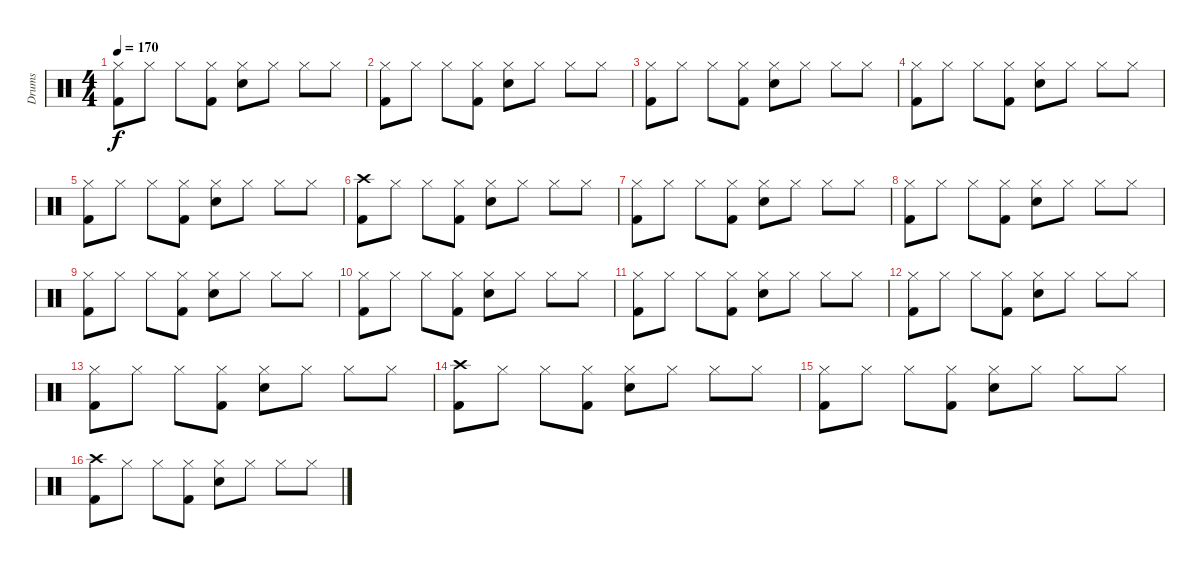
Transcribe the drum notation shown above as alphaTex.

\track ("Drums" "Drums") {instrument percussion}
\staff {score}
\articulation defaults
\ts (4 4)
\tempo 170
\clef neutral
\ks c
("Hi-Hat (closed)" "Kick (hit) 2").8{dy f} "Hi-Hat (closed)".8 "Hi-Hat (closed)".8 ("Hi-Hat (closed)" "Kick (hit) 2").8 ("Hi-Hat (closed)" "Snare (hit) 2").8 "Hi-Hat (closed)".8 "Hi-Hat (closed)".8 "Hi-Hat (closed)".8 |
("Hi-Hat (closed)" "Kick (hit) 2").8 "Hi-Hat (closed)".8 "Hi-Hat (closed)".8 ("Hi-Hat (closed)" "Kick (hit) 2").8 ("Hi-Hat (closed)" "Snare (hit) 2").8 "Hi-Hat (closed)".8 "Hi-Hat (closed)".8 "Hi-Hat (closed)".8 |
("Hi-Hat (closed)" "Kick (hit) 2").8 "Hi-Hat (closed)".8 "Hi-Hat (closed)".8 ("Hi-Hat (closed)" "Kick (hit) 2").8 ("Hi-Hat (closed)" "Snare (hit) 2").8 "Hi-Hat (closed)".8 "Hi-Hat (closed)".8 "Hi-Hat (closed)".8 |
("Hi-Hat (closed)" "Kick (hit) 2").8 "Hi-Hat (closed)".8 "Hi-Hat (closed)".8 ("Hi-Hat (closed)" "Kick (hit) 2").8 ("Hi-Hat (closed)" "Snare (hit) 2").8 "Hi-Hat (closed)".8 "Hi-Hat (closed)".8 "Hi-Hat (closed)".8 |
("Hi-Hat (closed)" "Kick (hit) 2").8 "Hi-Hat (closed)".8 "Hi-Hat (closed)".8 ("Hi-Hat (closed)" "Kick (hit) 2").8 ("Hi-Hat (closed)" "Snare (hit) 2").8 "Hi-Hat (closed)".8 "Hi-Hat (closed)".8 "Hi-Hat (closed)".8 |
("Crash high (hit)" "Kick (hit) 2").8 "Hi-Hat (closed)".8 "Hi-Hat (closed)".8 ("Hi-Hat (closed)" "Kick (hit) 2").8 ("Hi-Hat (closed)" "Snare (hit) 2").8 "Hi-Hat (closed)".8 "Hi-Hat (closed)".8 "Hi-Hat (closed)".8 |
("Hi-Hat (closed)" "Kick (hit) 2").8 "Hi-Hat (closed)".8 "Hi-Hat (closed)".8 ("Hi-Hat (closed)" "Kick (hit) 2").8 ("Hi-Hat (closed)" "Snare (hit) 2").8 "Hi-Hat (closed)".8 "Hi-Hat (closed)".8 "Hi-Hat (closed)".8 |
("Hi-Hat (closed)" "Kick (hit) 2").8 "Hi-Hat (closed)".8 "Hi-Hat (closed)".8 ("Hi-Hat (closed)" "Kick (hit) 2").8 ("Hi-Hat (closed)" "Snare (hit) 2").8 "Hi-Hat (closed)".8 "Hi-Hat (closed)".8 "Hi-Hat (closed)".8 |
("Hi-Hat (closed)" "Kick (hit) 2").8 "Hi-Hat (closed)".8 "Hi-Hat (closed)".8 ("Hi-Hat (closed)" "Kick (hit) 2").8 ("Hi-Hat (closed)" "Snare (hit) 2").8 "Hi-Hat (closed)".8 "Hi-Hat (closed)".8 "Hi-Hat (closed)".8 |
("Hi-Hat (closed)" "Kick (hit) 2").8 "Hi-Hat (closed)".8 "Hi-Hat (closed)".8 ("Hi-Hat (closed)" "Kick (hit) 2").8 ("Hi-Hat (closed)" "Snare (hit) 2").8 "Hi-Hat (closed)".8 "Hi-Hat (closed)".8 "Hi-Hat (closed)".8 |
("Hi-Hat (closed)" "Kick (hit) 2").8 "Hi-Hat (closed)".8 "Hi-Hat (closed)".8 ("Hi-Hat (closed)" "Kick (hit) 2").8 ("Hi-Hat (closed)" "Snare (hit) 2").8 "Hi-Hat (closed)".8 "Hi-Hat (closed)".8 "Hi-Hat (closed)".8 |
("Hi-Hat (closed)" "Kick (hit) 2").8 "Hi-Hat (closed)".8 "Hi-Hat (closed)".8 ("Hi-Hat (closed)" "Kick (hit) 2").8 ("Hi-Hat (closed)" "Snare (hit) 2").8 "Hi-Hat (closed)".8 "Hi-Hat (closed)".8 "Hi-Hat (closed)".8 |
("Hi-Hat (closed)" "Kick (hit) 2").8 "Hi-Hat (closed)".8 "Hi-Hat (closed)".8 ("Hi-Hat (closed)" "Kick (hit) 2").8 ("Hi-Hat (closed)" "Snare (hit) 2").8 "Hi-Hat (closed)".8 "Hi-Hat (closed)".8 "Hi-Hat (closed)".8 |
("Crash high (hit)" "Kick (hit) 2").8 "Hi-Hat (closed)".8 "Hi-Hat (closed)".8 ("Hi-Hat (closed)" "Kick (hit) 2").8 ("Hi-Hat (closed)" "Snare (hit) 2").8 "Hi-Hat (closed)".8 "Hi-Hat (closed)".8 "Hi-Hat (closed)".8 |
("Hi-Hat (closed)" "Kick (hit) 2").8 "Hi-Hat (closed)".8 "Hi-Hat (closed)".8 ("Hi-Hat (closed)" "Kick (hit) 2").8 ("Hi-Hat (closed)" "Snare (hit) 2").8 "Hi-Hat (closed)".8 "Hi-Hat (closed)".8 "Hi-Hat (closed)".8 |
("Crash high (hit)" "Kick (hit) 2").8 "Hi-Hat (closed)".8 "Hi-Hat (closed)".8 ("Hi-Hat (closed)" "Kick (hit) 2").8 ("Hi-Hat (closed)" "Snare (hit) 2").8 "Hi-Hat (closed)".8 "Hi-Hat (closed)".8 "Hi-Hat (closed)".8
